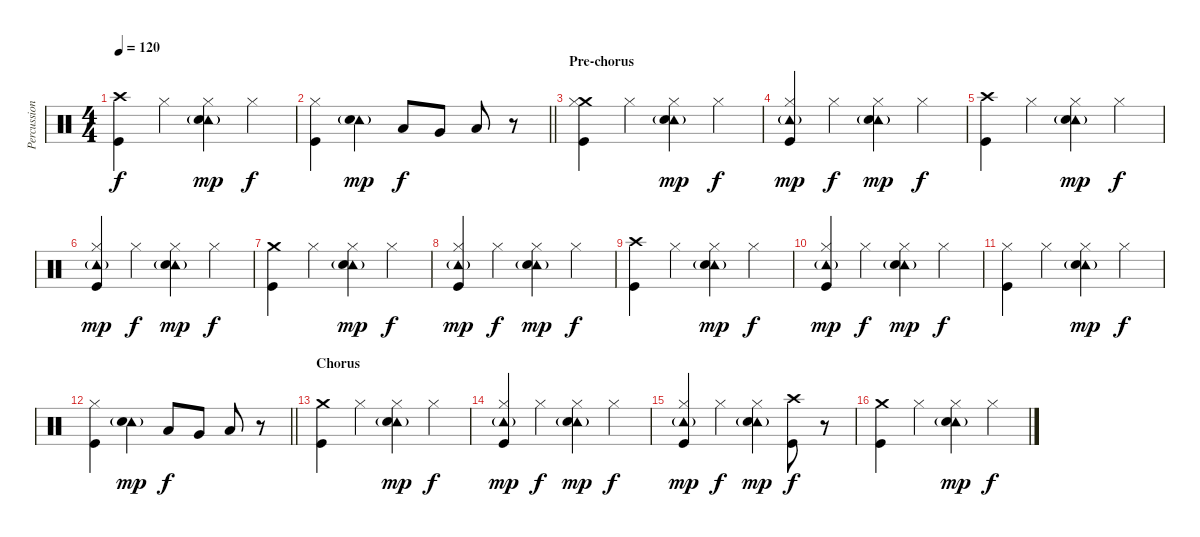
\track ("Percussioni" "Percussion") {instrument percussion}
\staff {score}
\articulation defaults
\ts (4 4)
\tempo 120
\clef neutral
\ks c
("Crash high (hit)" "Kick (hit)").4{dy f} "Hi-Hat (closed)".4 ("Tambourine (hit)"{g} "Hi-Hat (closed)" "Snare (hit) 2").4{dy mp} "Hi-Hat (closed)".4{dy f} |
\barLineRight lightlight
("Hi-Hat (closed)" "Kick (hit)").4 ("Tambourine (hit)"{g} "Snare (hit) 2").4{dy mp} "Low Tom (hit)".8{dy f} "Very Low Tom (hit)".8 "Low Floor Tom (hit)".8 r.8 |
\section ("" "Pre-chorus")
("Crash medium (hit)" "Hi-Hat (closed)" "Kick (hit)").4 "Hi-Hat (closed)".4 ("Tambourine (hit)"{g} "Hi-Hat (closed)" "Snare (hit) 2").4{dy mp} "Hi-Hat (closed)".4{dy f} |
("Tambourine (hit)"{g} "Hi-Hat (closed)" "Kick (hit)").4{dy mp} "Hi-Hat (closed)".4{dy f} ("Tambourine (hit)"{g} "Hi-Hat (closed)" "Snare (hit) 2").4{dy mp} "Hi-Hat (closed)".4{dy f} |
("Crash high (hit)" "Kick (hit)").4 "Hi-Hat (closed)".4 ("Tambourine (hit)"{g} "Hi-Hat (closed)" "Snare (hit) 2").4{dy mp} "Hi-Hat (closed)".4{dy f} |
("Tambourine (hit)"{g} "Hi-Hat (closed)" "Kick (hit)").4{dy mp} "Hi-Hat (closed)".4{dy f} ("Tambourine (hit)"{g} "Hi-Hat (closed)" "Snare (hit) 2").4{dy mp} "Hi-Hat (closed)".4{dy f} |
("Crash medium (hit)" "Kick (hit)").4 "Hi-Hat (closed)".4 ("Tambourine (hit)"{g} "Hi-Hat (closed)" "Snare (hit) 2").4{dy mp} "Hi-Hat (closed)".4{dy f} |
("Tambourine (hit)"{g} "Hi-Hat (closed)" "Kick (hit)").4{dy mp} "Hi-Hat (closed)".4{dy f} ("Tambourine (hit)"{g} "Hi-Hat (closed)" "Snare (hit) 2").4{dy mp} "Hi-Hat (closed)".4{dy f} |
("Crash high (hit)" "Kick (hit)").4 "Hi-Hat (closed)".4 ("Tambourine (hit)"{g} "Hi-Hat (closed)" "Snare (hit) 2").4{dy mp} "Hi-Hat (closed)".4{dy f} |
("Tambourine (hit)"{g} "Hi-Hat (closed)" "Kick (hit)").4{dy mp} "Hi-Hat (closed)".4{dy f} ("Tambourine (hit)"{g} "Hi-Hat (closed)" "Snare (hit) 2").4{dy mp} "Hi-Hat (closed)".4{dy f} |
("Hi-Hat (closed)" "Kick (hit)").4 "Hi-Hat (closed)".4 ("Tambourine (hit)"{g} "Hi-Hat (closed)" "Snare (hit) 2").4{dy mp} "Hi-Hat (closed)".4{dy f} |
\barLineRight lightlight
("Hi-Hat (closed)" "Kick (hit)").4 ("Tambourine (hit)"{g} "Snare (hit) 2").4{dy mp} "Low Tom (hit)".8{dy f} "Very Low Tom (hit)".8 "Low Floor Tom (hit)".8 r.8 |
\section ("" "Chorus")
("Crash medium (hit)" "Kick (hit)").4 "Hi-Hat (closed)".4 ("Tambourine (hit)"{g} "Hi-Hat (closed)" "Snare (hit) 2").4{dy mp} "Hi-Hat (closed)".4{dy f} |
("Tambourine (hit)"{g} "Hi-Hat (closed)" "Kick (hit)").4{dy mp} "Hi-Hat (closed)".4{dy f} ("Tambourine (hit)"{g} "Hi-Hat (closed)" "Snare (hit) 2").4{dy mp} "Hi-Hat (closed)".4{dy f} |
("Tambourine (hit)"{g} "Hi-Hat (closed)" "Kick (hit)").4{dy mp} "Hi-Hat (closed)".4{dy f} ("Tambourine (hit)"{g} "Hi-Hat (closed)" "Snare (hit) 2").4{dy mp} ("Crash high (hit)" "Kick (hit)").8{dy f} r.8 |
("Crash medium (hit)" "Kick (hit)").4 "Hi-Hat (closed)".4 ("Tambourine (hit)"{g} "Hi-Hat (closed)" "Snare (hit) 2").4{dy mp} "Hi-Hat (closed)".4{dy f}
